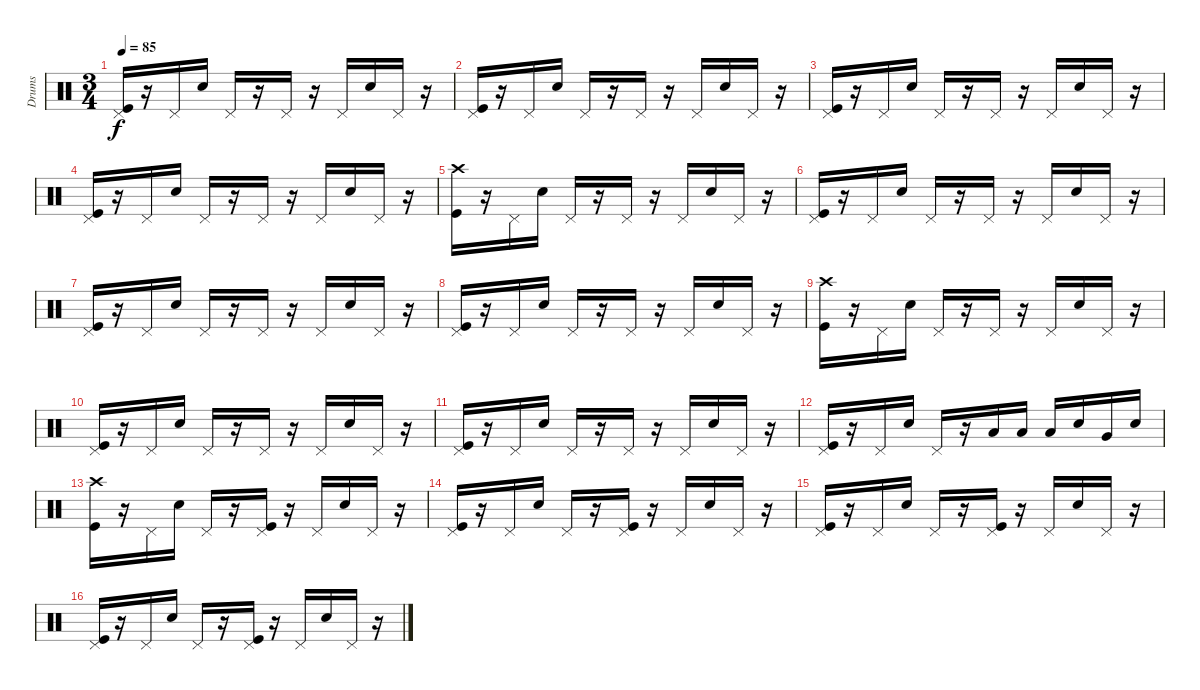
\track ("Drums" "Drums") {instrument percussion}
\staff {score}
\articulation defaults
\ts (3 4)
\tempo 85
\clef neutral
\ks c
("Pedal Hi-Hat (hit)" "Kick (hit)").16{dy f} r.16 "Pedal Hi-Hat (hit)".16 "Electric Snare (hit)".16 "Pedal Hi-Hat (hit)".16 r.16 "Pedal Hi-Hat (hit)".16 r.16 "Pedal Hi-Hat (hit)".16 "Electric Snare (hit)".16 "Pedal Hi-Hat (hit)".16 r.16 |
("Pedal Hi-Hat (hit)" "Kick (hit)").16 r.16 "Pedal Hi-Hat (hit)".16 "Electric Snare (hit)".16 "Pedal Hi-Hat (hit)".16 r.16 "Pedal Hi-Hat (hit)".16 r.16 "Pedal Hi-Hat (hit)".16 "Electric Snare (hit)".16 "Pedal Hi-Hat (hit)".16 r.16 |
("Pedal Hi-Hat (hit)" "Kick (hit)").16 r.16 "Pedal Hi-Hat (hit)".16 "Electric Snare (hit)".16 "Pedal Hi-Hat (hit)".16 r.16 "Pedal Hi-Hat (hit)".16 r.16 "Pedal Hi-Hat (hit)".16 "Electric Snare (hit)".16 "Pedal Hi-Hat (hit)".16 r.16 |
("Pedal Hi-Hat (hit)" "Kick (hit)").16 r.16 "Pedal Hi-Hat (hit)".16 "Electric Snare (hit)".16 "Pedal Hi-Hat (hit)".16 r.16 "Pedal Hi-Hat (hit)".16 r.16 "Pedal Hi-Hat (hit)".16 "Electric Snare (hit)".16 "Pedal Hi-Hat (hit)".16 r.16 |
("Crash high (hit)" "Kick (hit)").16 r.16 "Pedal Hi-Hat (hit)".16 "Electric Snare (hit)".16 "Pedal Hi-Hat (hit)".16 r.16 "Pedal Hi-Hat (hit)".16 r.16 "Pedal Hi-Hat (hit)".16 "Electric Snare (hit)".16 "Pedal Hi-Hat (hit)".16 r.16 |
("Pedal Hi-Hat (hit)" "Kick (hit)").16 r.16 "Pedal Hi-Hat (hit)".16 "Electric Snare (hit)".16 "Pedal Hi-Hat (hit)".16 r.16 "Pedal Hi-Hat (hit)".16 r.16 "Pedal Hi-Hat (hit)".16 "Electric Snare (hit)".16 "Pedal Hi-Hat (hit)".16 r.16 |
("Pedal Hi-Hat (hit)" "Kick (hit)").16 r.16 "Pedal Hi-Hat (hit)".16 "Electric Snare (hit)".16 "Pedal Hi-Hat (hit)".16 r.16 "Pedal Hi-Hat (hit)".16 r.16 "Pedal Hi-Hat (hit)".16 "Electric Snare (hit)".16 "Pedal Hi-Hat (hit)".16 r.16 |
("Pedal Hi-Hat (hit)" "Kick (hit)").16 r.16 "Pedal Hi-Hat (hit)".16 "Electric Snare (hit)".16 "Pedal Hi-Hat (hit)".16 r.16 "Pedal Hi-Hat (hit)".16 r.16 "Pedal Hi-Hat (hit)".16 "Electric Snare (hit)".16 "Pedal Hi-Hat (hit)".16 r.16 |
("Crash high (hit)" "Kick (hit)").16 r.16 "Pedal Hi-Hat (hit)".16 "Electric Snare (hit)".16 "Pedal Hi-Hat (hit)".16 r.16 "Pedal Hi-Hat (hit)".16 r.16 "Pedal Hi-Hat (hit)".16 "Electric Snare (hit)".16 "Pedal Hi-Hat (hit)".16 r.16 |
("Pedal Hi-Hat (hit)" "Kick (hit)").16 r.16 "Pedal Hi-Hat (hit)".16 "Electric Snare (hit)".16 "Pedal Hi-Hat (hit)".16 r.16 "Pedal Hi-Hat (hit)".16 r.16 "Pedal Hi-Hat (hit)".16 "Electric Snare (hit)".16 "Pedal Hi-Hat (hit)".16 r.16 |
("Pedal Hi-Hat (hit)" "Kick (hit)").16 r.16 "Pedal Hi-Hat (hit)".16 "Electric Snare (hit)".16 "Pedal Hi-Hat (hit)".16 r.16 "Pedal Hi-Hat (hit)".16 r.16 "Pedal Hi-Hat (hit)".16 "Electric Snare (hit)".16 "Pedal Hi-Hat (hit)".16 r.16 |
("Pedal Hi-Hat (hit)" "Kick (hit)").16 r.16 "Pedal Hi-Hat (hit)".16 "Electric Snare (hit)".16 "Pedal Hi-Hat (hit)".16 r.16 "Low Floor Tom (hit)".16 "Low Floor Tom (hit)".16 "Low Floor Tom (hit)".16 "Electric Snare (hit)".16 "Very Low Tom (hit)".16 "Electric Snare (hit)".16 |
("Crash high (hit)" "Kick (hit)").16 r.16 "Pedal Hi-Hat (hit)".16 "Electric Snare (hit)".16 "Pedal Hi-Hat (hit)".16 r.16 ("Pedal Hi-Hat (hit)" "Kick (hit)").16 r.16 "Pedal Hi-Hat (hit)".16 "Electric Snare (hit)".16 "Pedal Hi-Hat (hit)".16 r.16 |
("Pedal Hi-Hat (hit)" "Kick (hit)").16 r.16 "Pedal Hi-Hat (hit)".16 "Electric Snare (hit)".16 "Pedal Hi-Hat (hit)".16 r.16 ("Pedal Hi-Hat (hit)" "Kick (hit)").16 r.16 "Pedal Hi-Hat (hit)".16 "Electric Snare (hit)".16 "Pedal Hi-Hat (hit)".16 r.16 |
("Pedal Hi-Hat (hit)" "Kick (hit)").16 r.16 "Pedal Hi-Hat (hit)".16 "Electric Snare (hit)".16 "Pedal Hi-Hat (hit)".16 r.16 ("Pedal Hi-Hat (hit)" "Kick (hit)").16 r.16 "Pedal Hi-Hat (hit)".16 "Electric Snare (hit)".16 "Pedal Hi-Hat (hit)".16 r.16 |
("Pedal Hi-Hat (hit)" "Kick (hit)").16 r.16 "Pedal Hi-Hat (hit)".16 "Electric Snare (hit)".16 "Pedal Hi-Hat (hit)".16 r.16 ("Pedal Hi-Hat (hit)" "Kick (hit)").16 r.16 "Pedal Hi-Hat (hit)".16 "Electric Snare (hit)".16 "Pedal Hi-Hat (hit)".16 r.16
